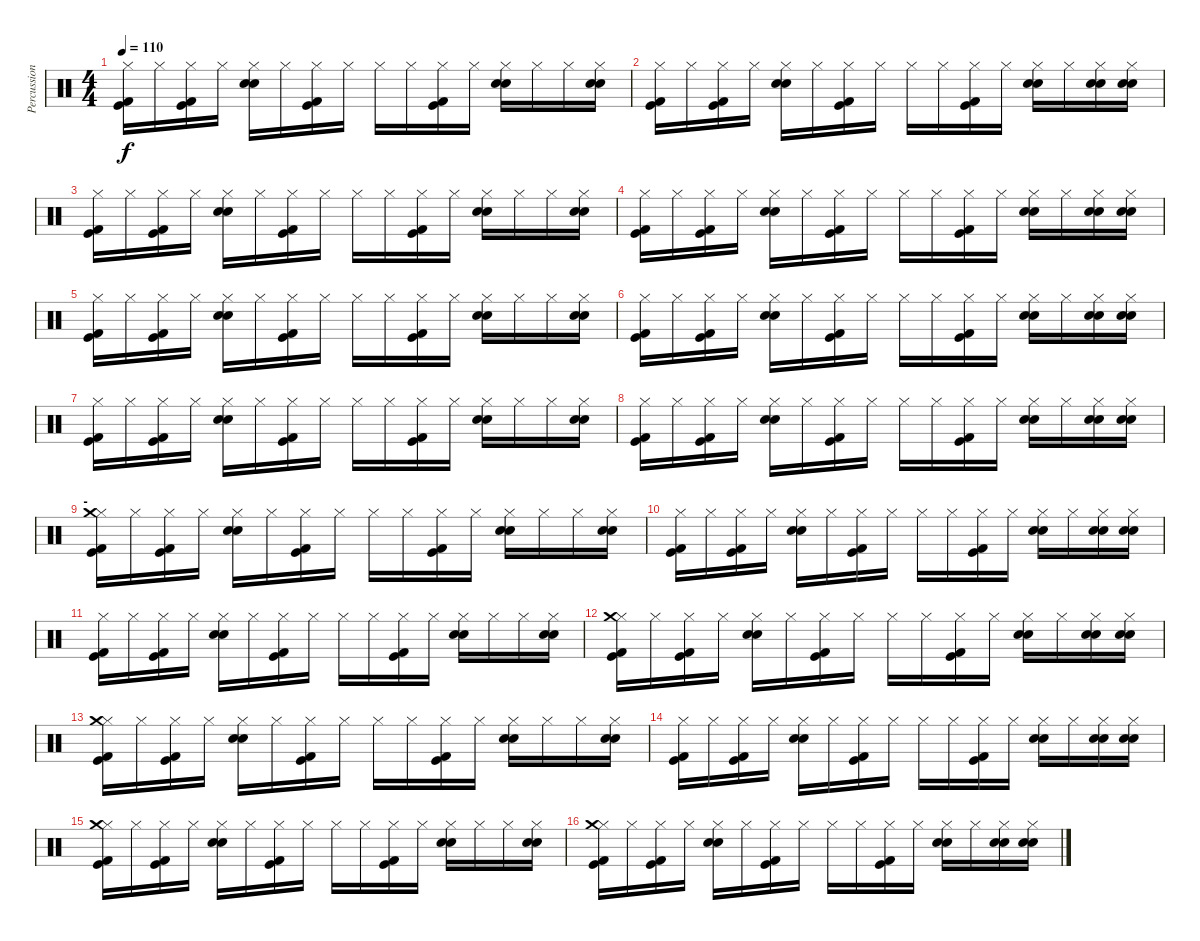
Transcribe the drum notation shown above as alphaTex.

\track ("Percussion" "Percussion") {instrument percussion}
\staff {score}
\articulation defaults
\ts (4 4)
\tempo 110
\clef neutral
\ks c
("Hi-Hat (closed)" "Kick (hit) 2" "Kick (hit)").16{dy f} "Hi-Hat (closed)".16 ("Hi-Hat (closed)" "Kick (hit) 2" "Kick (hit)").16 "Hi-Hat (closed)".16 ("Hi-Hat (closed)" "Electric Snare (hit)" "Snare (hit) 2").16 "Hi-Hat (closed)".16 ("Hi-Hat (closed)" "Kick (hit) 2" "Kick (hit)").16 "Hi-Hat (closed)".16 "Hi-Hat (closed)".16 "Hi-Hat (closed)".16 ("Hi-Hat (closed)" "Kick (hit) 2" "Kick (hit)").16 "Hi-Hat (closed)".16 ("Hi-Hat (closed)" "Electric Snare (hit)" "Snare (hit) 2").16 "Hi-Hat (closed)".16 "Hi-Hat (closed)".16 ("Hi-Hat (closed)" "Electric Snare (hit)" "Snare (hit) 2").16 |
("Hi-Hat (closed)" "Kick (hit) 2" "Kick (hit)").16 "Hi-Hat (closed)".16 ("Hi-Hat (closed)" "Kick (hit) 2" "Kick (hit)").16 "Hi-Hat (closed)".16 ("Hi-Hat (closed)" "Electric Snare (hit)" "Snare (hit) 2").16 "Hi-Hat (closed)".16 ("Hi-Hat (closed)" "Kick (hit) 2" "Kick (hit)").16 "Hi-Hat (closed)".16 "Hi-Hat (closed)".16 "Hi-Hat (closed)".16 ("Hi-Hat (closed)" "Kick (hit) 2" "Kick (hit)").16 "Hi-Hat (closed)".16 ("Hi-Hat (closed)" "Electric Snare (hit)" "Snare (hit) 2").16 "Hi-Hat (closed)".16 ("Hi-Hat (closed)" "Electric Snare (hit)" "Snare (hit) 2").16 ("Hi-Hat (closed)" "Electric Snare (hit)" "Snare (hit) 2").16 |
("Hi-Hat (closed)" "Kick (hit) 2" "Kick (hit)").16 "Hi-Hat (closed)".16 ("Hi-Hat (closed)" "Kick (hit) 2" "Kick (hit)").16 "Hi-Hat (closed)".16 ("Hi-Hat (closed)" "Electric Snare (hit)" "Snare (hit) 2").16 "Hi-Hat (closed)".16 ("Hi-Hat (closed)" "Kick (hit) 2" "Kick (hit)").16 "Hi-Hat (closed)".16 "Hi-Hat (closed)".16 "Hi-Hat (closed)".16 ("Hi-Hat (closed)" "Kick (hit) 2" "Kick (hit)").16 "Hi-Hat (closed)".16 ("Hi-Hat (closed)" "Electric Snare (hit)" "Snare (hit) 2").16 "Hi-Hat (closed)".16 "Hi-Hat (closed)".16 ("Hi-Hat (closed)" "Electric Snare (hit)" "Snare (hit) 2").16 |
("Hi-Hat (closed)" "Kick (hit) 2" "Kick (hit)").16 "Hi-Hat (closed)".16 ("Hi-Hat (closed)" "Kick (hit) 2" "Kick (hit)").16 "Hi-Hat (closed)".16 ("Hi-Hat (closed)" "Electric Snare (hit)" "Snare (hit) 2").16 "Hi-Hat (closed)".16 ("Hi-Hat (closed)" "Kick (hit) 2" "Kick (hit)").16 "Hi-Hat (closed)".16 "Hi-Hat (closed)".16 "Hi-Hat (closed)".16 ("Hi-Hat (closed)" "Kick (hit) 2" "Kick (hit)").16 "Hi-Hat (closed)".16 ("Hi-Hat (closed)" "Electric Snare (hit)" "Snare (hit) 2").16 "Hi-Hat (closed)".16 ("Hi-Hat (closed)" "Electric Snare (hit)" "Snare (hit) 2").16 ("Hi-Hat (closed)" "Electric Snare (hit)" "Snare (hit) 2").16 |
("Hi-Hat (closed)" "Kick (hit) 2" "Kick (hit)").16 "Hi-Hat (closed)".16 ("Hi-Hat (closed)" "Kick (hit) 2" "Kick (hit)").16 "Hi-Hat (closed)".16 ("Hi-Hat (closed)" "Electric Snare (hit)" "Snare (hit) 2").16 "Hi-Hat (closed)".16 ("Hi-Hat (closed)" "Kick (hit) 2" "Kick (hit)").16 "Hi-Hat (closed)".16 "Hi-Hat (closed)".16 "Hi-Hat (closed)".16 ("Hi-Hat (closed)" "Kick (hit) 2" "Kick (hit)").16 "Hi-Hat (closed)".16 ("Hi-Hat (closed)" "Electric Snare (hit)" "Snare (hit) 2").16 "Hi-Hat (closed)".16 "Hi-Hat (closed)".16 ("Hi-Hat (closed)" "Electric Snare (hit)" "Snare (hit) 2").16 |
("Hi-Hat (closed)" "Kick (hit) 2" "Kick (hit)").16 "Hi-Hat (closed)".16 ("Hi-Hat (closed)" "Kick (hit) 2" "Kick (hit)").16 "Hi-Hat (closed)".16 ("Hi-Hat (closed)" "Electric Snare (hit)" "Snare (hit) 2").16 "Hi-Hat (closed)".16 ("Hi-Hat (closed)" "Kick (hit) 2" "Kick (hit)").16 "Hi-Hat (closed)".16 "Hi-Hat (closed)".16 "Hi-Hat (closed)".16 ("Hi-Hat (closed)" "Kick (hit) 2" "Kick (hit)").16 "Hi-Hat (closed)".16 ("Hi-Hat (closed)" "Electric Snare (hit)" "Snare (hit) 2").16 "Hi-Hat (closed)".16 ("Hi-Hat (closed)" "Electric Snare (hit)" "Snare (hit) 2").16 ("Hi-Hat (closed)" "Electric Snare (hit)" "Snare (hit) 2").16 |
("Hi-Hat (closed)" "Kick (hit) 2" "Kick (hit)").16 "Hi-Hat (closed)".16 ("Hi-Hat (closed)" "Kick (hit) 2" "Kick (hit)").16 "Hi-Hat (closed)".16 ("Hi-Hat (closed)" "Electric Snare (hit)" "Snare (hit) 2").16 "Hi-Hat (closed)".16 ("Hi-Hat (closed)" "Kick (hit) 2" "Kick (hit)").16 "Hi-Hat (closed)".16 "Hi-Hat (closed)".16 "Hi-Hat (closed)".16 ("Hi-Hat (closed)" "Kick (hit) 2" "Kick (hit)").16 "Hi-Hat (closed)".16 ("Hi-Hat (closed)" "Electric Snare (hit)" "Snare (hit) 2").16 "Hi-Hat (closed)".16 "Hi-Hat (closed)".16 ("Hi-Hat (closed)" "Electric Snare (hit)" "Snare (hit) 2").16 |
("Hi-Hat (closed)" "Kick (hit) 2" "Kick (hit)").16 "Hi-Hat (closed)".16 ("Hi-Hat (closed)" "Kick (hit) 2" "Kick (hit)").16 "Hi-Hat (closed)".16 ("Hi-Hat (closed)" "Electric Snare (hit)" "Snare (hit) 2").16 "Hi-Hat (closed)".16 ("Hi-Hat (closed)" "Kick (hit) 2" "Kick (hit)").16 "Hi-Hat (closed)".16 "Hi-Hat (closed)".16 "Hi-Hat (closed)".16 ("Hi-Hat (closed)" "Kick (hit) 2" "Kick (hit)").16 "Hi-Hat (closed)".16 ("Hi-Hat (closed)" "Electric Snare (hit)" "Snare (hit) 2").16 "Hi-Hat (closed)".16 ("Hi-Hat (closed)" "Electric Snare (hit)" "Snare (hit) 2").16 ("Hi-Hat (closed)" "Electric Snare (hit)" "Snare (hit) 2").16 |
\section ("" "-")
("Hi-Hat (closed)" "Crash medium (hit)" "Kick (hit) 2" "Kick (hit)").16 "Hi-Hat (closed)".16 ("Hi-Hat (closed)" "Kick (hit) 2" "Kick (hit)").16 "Hi-Hat (closed)".16 ("Hi-Hat (closed)" "Electric Snare (hit)" "Snare (hit) 2").16 "Hi-Hat (closed)".16 ("Hi-Hat (closed)" "Kick (hit) 2" "Kick (hit)").16 "Hi-Hat (closed)".16 "Hi-Hat (closed)".16 "Hi-Hat (closed)".16 ("Hi-Hat (closed)" "Kick (hit) 2" "Kick (hit)").16 "Hi-Hat (closed)".16 ("Hi-Hat (closed)" "Electric Snare (hit)" "Snare (hit) 2").16 "Hi-Hat (closed)".16 "Hi-Hat (closed)".16 ("Hi-Hat (closed)" "Electric Snare (hit)" "Snare (hit) 2").16 |
("Hi-Hat (closed)" "Kick (hit) 2" "Kick (hit)").16 "Hi-Hat (closed)".16 ("Hi-Hat (closed)" "Kick (hit) 2" "Kick (hit)").16 "Hi-Hat (closed)".16 ("Hi-Hat (closed)" "Electric Snare (hit)" "Snare (hit) 2").16 "Hi-Hat (closed)".16 ("Hi-Hat (closed)" "Kick (hit) 2" "Kick (hit)").16 "Hi-Hat (closed)".16 "Hi-Hat (closed)".16 "Hi-Hat (closed)".16 ("Hi-Hat (closed)" "Kick (hit) 2" "Kick (hit)").16 "Hi-Hat (closed)".16 ("Hi-Hat (closed)" "Electric Snare (hit)" "Snare (hit) 2").16 "Hi-Hat (closed)".16 ("Hi-Hat (closed)" "Electric Snare (hit)" "Snare (hit) 2").16 ("Hi-Hat (closed)" "Electric Snare (hit)" "Snare (hit) 2").16 |
("Hi-Hat (closed)" "Kick (hit) 2" "Kick (hit)").16 "Hi-Hat (closed)".16 ("Hi-Hat (closed)" "Kick (hit) 2" "Kick (hit)").16 "Hi-Hat (closed)".16 ("Hi-Hat (closed)" "Electric Snare (hit)" "Snare (hit) 2").16 "Hi-Hat (closed)".16 ("Hi-Hat (closed)" "Kick (hit) 2" "Kick (hit)").16 "Hi-Hat (closed)".16 "Hi-Hat (closed)".16 "Hi-Hat (closed)".16 ("Hi-Hat (closed)" "Kick (hit) 2" "Kick (hit)").16 "Hi-Hat (closed)".16 ("Hi-Hat (closed)" "Electric Snare (hit)" "Snare (hit) 2").16 "Hi-Hat (closed)".16 "Hi-Hat (closed)".16 ("Hi-Hat (closed)" "Electric Snare (hit)" "Snare (hit) 2").16 |
("Hi-Hat (closed)" "Crash medium (hit)" "Kick (hit) 2" "Kick (hit)").16 "Hi-Hat (closed)".16 ("Hi-Hat (closed)" "Kick (hit) 2" "Kick (hit)").16 "Hi-Hat (closed)".16 ("Hi-Hat (closed)" "Electric Snare (hit)" "Snare (hit) 2").16 "Hi-Hat (closed)".16 ("Hi-Hat (closed)" "Kick (hit) 2" "Kick (hit)").16 "Hi-Hat (closed)".16 "Hi-Hat (closed)".16 "Hi-Hat (closed)".16 ("Hi-Hat (closed)" "Kick (hit) 2" "Kick (hit)").16 "Hi-Hat (closed)".16 ("Hi-Hat (closed)" "Electric Snare (hit)" "Snare (hit) 2").16 "Hi-Hat (closed)".16 ("Hi-Hat (closed)" "Electric Snare (hit)" "Snare (hit) 2").16 ("Hi-Hat (closed)" "Electric Snare (hit)" "Snare (hit) 2").16 |
("Hi-Hat (closed)" "Crash medium (hit)" "Kick (hit) 2" "Kick (hit)").16 "Hi-Hat (closed)".16 ("Hi-Hat (closed)" "Kick (hit) 2" "Kick (hit)").16 "Hi-Hat (closed)".16 ("Hi-Hat (closed)" "Electric Snare (hit)" "Snare (hit) 2").16 "Hi-Hat (closed)".16 ("Hi-Hat (closed)" "Kick (hit) 2" "Kick (hit)").16 "Hi-Hat (closed)".16 "Hi-Hat (closed)".16 "Hi-Hat (closed)".16 ("Hi-Hat (closed)" "Kick (hit) 2" "Kick (hit)").16 "Hi-Hat (closed)".16 ("Hi-Hat (closed)" "Electric Snare (hit)" "Snare (hit) 2").16 "Hi-Hat (closed)".16 "Hi-Hat (closed)".16 ("Hi-Hat (closed)" "Electric Snare (hit)" "Snare (hit) 2").16 |
("Hi-Hat (closed)" "Kick (hit) 2" "Kick (hit)").16 "Hi-Hat (closed)".16 ("Hi-Hat (closed)" "Kick (hit) 2" "Kick (hit)").16 "Hi-Hat (closed)".16 ("Hi-Hat (closed)" "Electric Snare (hit)" "Snare (hit) 2").16 "Hi-Hat (closed)".16 ("Hi-Hat (closed)" "Kick (hit) 2" "Kick (hit)").16 "Hi-Hat (closed)".16 "Hi-Hat (closed)".16 "Hi-Hat (closed)".16 ("Hi-Hat (closed)" "Kick (hit) 2" "Kick (hit)").16 "Hi-Hat (closed)".16 ("Hi-Hat (closed)" "Electric Snare (hit)" "Snare (hit) 2").16 "Hi-Hat (closed)".16 ("Hi-Hat (closed)" "Electric Snare (hit)" "Snare (hit) 2").16 ("Hi-Hat (closed)" "Electric Snare (hit)" "Snare (hit) 2").16 |
("Hi-Hat (closed)" "Crash medium (hit)" "Kick (hit) 2" "Kick (hit)").16 "Hi-Hat (closed)".16 ("Hi-Hat (closed)" "Kick (hit) 2" "Kick (hit)").16 "Hi-Hat (closed)".16 ("Hi-Hat (closed)" "Electric Snare (hit)" "Snare (hit) 2").16 "Hi-Hat (closed)".16 ("Hi-Hat (closed)" "Kick (hit) 2" "Kick (hit)").16 "Hi-Hat (closed)".16 "Hi-Hat (closed)".16 "Hi-Hat (closed)".16 ("Hi-Hat (closed)" "Kick (hit) 2" "Kick (hit)").16 "Hi-Hat (closed)".16 ("Hi-Hat (closed)" "Electric Snare (hit)" "Snare (hit) 2").16 "Hi-Hat (closed)".16 "Hi-Hat (closed)".16 ("Hi-Hat (closed)" "Electric Snare (hit)" "Snare (hit) 2").16 |
("Hi-Hat (closed)" "Crash medium (hit)" "Kick (hit) 2" "Kick (hit)").16 "Hi-Hat (closed)".16 ("Hi-Hat (closed)" "Kick (hit) 2" "Kick (hit)").16 "Hi-Hat (closed)".16 ("Hi-Hat (closed)" "Electric Snare (hit)" "Snare (hit) 2").16 "Hi-Hat (closed)".16 ("Hi-Hat (closed)" "Kick (hit) 2" "Kick (hit)").16 "Hi-Hat (closed)".16 "Hi-Hat (closed)".16 "Hi-Hat (closed)".16 ("Hi-Hat (closed)" "Kick (hit) 2" "Kick (hit)").16 "Hi-Hat (closed)".16 ("Hi-Hat (closed)" "Electric Snare (hit)" "Snare (hit) 2").16 "Hi-Hat (closed)".16 ("Hi-Hat (closed)" "Electric Snare (hit)" "Snare (hit) 2").16 ("Hi-Hat (closed)" "Electric Snare (hit)" "Snare (hit) 2").16
